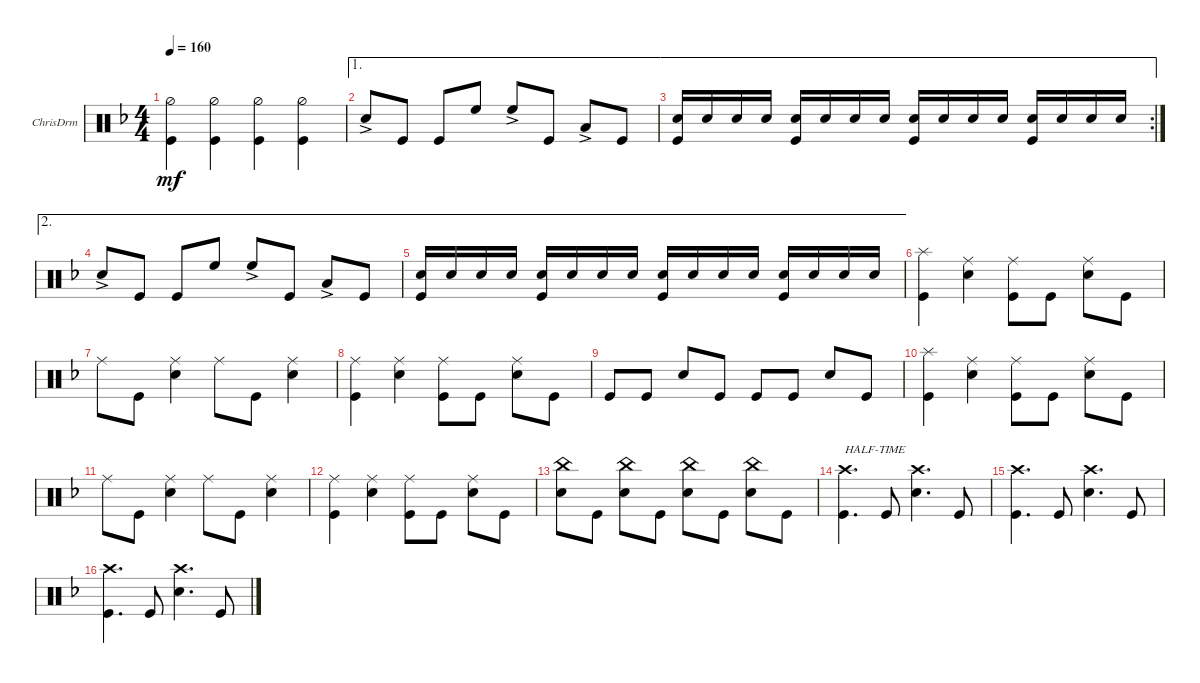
\defaultSystemsLayout 4
\bracketExtendMode groupsimilarinstruments
\firstSystemTrackNameOrientation horizontal
\otherSystemsTrackNameOrientation horizontal
\track ("Drumkit" "ChrisDrm") {instrument percussion}
\staff {score}
\articulation defaults
\ts (4 4)
\tempo 160
\clef neutral
\ks dminor
("Kick (hit)" "Hi-Hat (half)").4{dy mf} ("Kick (hit)" "Hi-Hat (half)").4 ("Kick (hit)" "Hi-Hat (half)").4 ("Kick (hit)" "Hi-Hat (half)").4 |
\ae 1 "Snare (hit) 2"{ac}.8 "Kick (hit)".8 "Kick (hit)".8 "High Floor Tom (hit)".8 "High Floor Tom (hit)"{ac}.8 "Kick (hit)".8 "Low Tom (hit)"{ac}.8 "Kick (hit)".8
|
\ae 1
\rc 2
("Snare (hit) 2" "Kick (hit)").16 "Snare (hit) 2".16 "Snare (hit) 2".16 "Snare (hit) 2".16 ("Snare (hit) 2" "Kick (hit)").16 "Snare (hit) 2".16 "Snare (hit) 2".16 "Snare (hit) 2".16 ("Snare (hit) 2" "Kick (hit)").16 "Snare (hit) 2".16 "Snare (hit) 2".16 "Snare (hit) 2".16 ("Snare (hit) 2" "Kick (hit)").16 "Snare (hit) 2".16 "Snare (hit) 2".16 "Snare (hit) 2".16 |
\ae 2 "Snare (hit) 2"{ac}.8 "Kick (hit)".8 "Kick (hit)".8 "High Floor Tom (hit)".8 "High Floor Tom (hit)"{ac}.8 "Kick (hit)".8 "Low Tom (hit)"{ac}.8 "Kick (hit)".8
|
\ae 2
("Snare (hit) 2" "Kick (hit)").16 "Snare (hit) 2".16 "Snare (hit) 2".16 "Snare (hit) 2".16 ("Snare (hit) 2" "Kick (hit)").16 "Snare (hit) 2".16 "Snare (hit) 2".16 "Snare (hit) 2".16 ("Snare (hit) 2" "Kick (hit)").16 "Snare (hit) 2".16 "Snare (hit) 2".16 "Snare (hit) 2".16 ("Snare (hit) 2" "Kick (hit)").16 "Snare (hit) 2".16 "Snare (hit) 2".16 "Snare (hit) 2".16 |
("Splash (hit)" "Kick (hit)").4 ("Snare (hit) 2" "Ride (middle)").4 ("Kick (hit)" "Ride (middle)").8 "Kick (hit)".8 ("Snare (hit) 2" "Ride (middle)").8 "Kick (hit)".8 |
"Ride (middle)".8 "Kick (hit)".8 ("Snare (hit) 2" "Ride (middle)").4 "Ride (middle)".8 "Kick (hit)".8 ("Snare (hit) 2" "Ride (middle)").4 |
("Ride (middle)" "Kick (hit)").4 ("Snare (hit) 2" "Ride (middle)").4 ("Ride (middle)" "Kick (hit)").8 "Kick (hit)".8 ("Snare (hit) 2" "Ride (middle)").8 "Kick (hit)".8 |
"Kick (hit)".8 "Kick (hit)".8 "Snare (hit) 2".8 "Kick (hit)".8 "Kick (hit)".8 "Kick (hit)".8 "Snare (hit) 2".8 "Kick (hit)".8 |
("Kick (hit)" "Splash (hit)").4 ("Snare (hit) 2" "Ride (middle)").4 ("Ride (middle)" "Kick (hit)").8 "Kick (hit)".8 ("Snare (hit) 2" "Ride (middle)").8 "Kick (hit)".8 |
"Ride (middle)".8 "Kick (hit)".8 ("Snare (hit) 2" "Ride (middle)").4 "Ride (middle)".8 "Kick (hit)".8 ("Snare (hit) 2" "Ride (middle)").4 |
("Ride (middle)" "Kick (hit)").4 ("Snare (hit) 2" "Ride (middle)").4 ("Ride (middle)" "Kick (hit)").8 "Kick (hit)".8 ("Snare (hit) 2" "Ride (middle)").8 "Kick (hit)".8 |
("Snare (hit) 2" "China (hit)").8 "Kick (hit)".8 ("Snare (hit) 2" "China (hit)").8 "Kick (hit)".8 ("Snare (hit) 2" "China (hit)").8 "Kick (hit)".8 ("Snare (hit) 2" "China (hit)").8 "Kick (hit)".8 |
("Crash high (hit)" "Kick (hit)").4{d txt "HALF-TIME"} "Kick (hit)".8 ("Snare (hit) 2" "Crash high (hit)").4{d} "Kick (hit)".8 |
("Crash high (hit)" "Kick (hit)").4{d} "Kick (hit)".8 ("Snare (hit) 2" "Crash high (hit)").4{d} "Kick (hit)".8 |
("Crash high (hit)" "Kick (hit)").4{d} "Kick (hit)".8 ("Snare (hit) 2" "Crash high (hit)").4{d} "Kick (hit)".8
